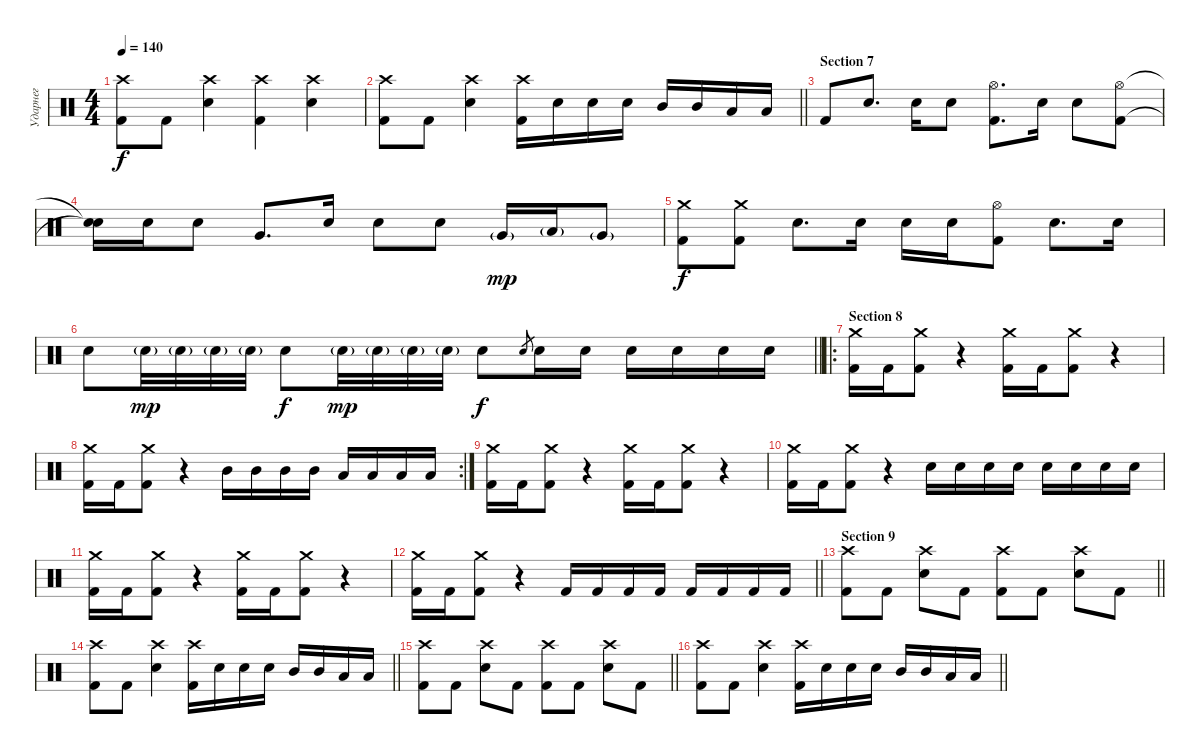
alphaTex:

\track ("Ударнег" "Ударнег") {instrument percussion}
\staff {score}
\articulation defaults
\ts (4 4)
\tempo 140
\clef neutral
\ks c
("Crash high (hit)" "Kick (hit) 2").8{dy f} "Kick (hit) 2".8 ("Crash high (hit)" "Snare (hit) 2").4 ("Crash high (hit)" "Kick (hit) 2").4 ("Crash high (hit)" "Snare (hit) 2").4 |
\barLineRight lightlight
("Crash high (hit)" "Kick (hit) 2").8 "Kick (hit) 2".8 ("Crash high (hit)" "Snare (hit) 2").4 ("Crash high (hit)" "Kick (hit) 2").16 "Snare (hit) 2".16 "Snare (hit) 2".16 "Snare (hit) 2".16 "Mid Tom (hit)".16 "Mid Tom (hit)".16 "Low Tom (hit)".16 "Low Tom (hit)".16 |
\section ("" "Section 7")
"Kick (hit) 2".8 "Snare (hit) 2".8{d} "Snare (hit) 2".16 "Snare (hit) 2".8 ("Hi-Hat (open)" "Kick (hit) 2").8{d} "Snare (hit) 2".16 "Snare (hit) 2".8 ("Hi-Hat (open)" "Kick (hit) 2").8 |
("Snare (hit)"{t} "Snare (hit)"{t}).16 "Snare (hit) 2".16 "Snare (hit) 2".8 "Very Low Tom (hit)".8{d} "Snare (hit) 2".16 "Snare (hit) 2".8 "Snare (hit) 2".8 "Very Low Tom (hit)"{g}.16{dy mp} "Low Tom (hit)"{g}.16 "Very Low Tom (hit)"{g}.8 |
("Crash medium (hit)" "Kick (hit) 2").8{dy f} ("Crash medium (hit)" "Kick (hit) 2").8 "Snare (hit) 2".8{d} "Snare (hit) 2".16 "Snare (hit) 2".16 "Snare (hit) 2".16 ("Hi-Hat (open)" "Kick (hit) 2").8 "Snare (hit) 2".8{d} "Snare (hit) 2".16 |
\barLineRight lightlight "Snare (hit) 2".8 "Snare (hit) 2"{g}.32{dy mp} "Snare (hit) 2"{g}.32 "Snare (hit) 2"{g}.32 "Snare (hit) 2"{g}.32 "Snare (hit) 2".8{dy f} "Snare (hit) 2"{g}.32{dy mp} "Snare (hit) 2"{g}.32 "Snare (hit) 2"{g}.32 "Snare (hit) 2"{g}.32 "Snare (hit) 2".8{dy f} "Snare (hit) 2".8{gr} "Snare (hit) 2".16 "Snare (hit) 2".16 "Snare (hit) 2".16 "Snare (hit) 2".16 "Snare (hit) 2".16 "Snare (hit) 2".16
|
\ro
\section ("" "Section 8")
("Crash medium (hit)" "Kick (hit) 2").16 "Kick (hit) 2".16 ("Crash medium (hit)" "Kick (hit) 2").8 r.4 ("Crash medium (hit)" "Kick (hit) 2").16 "Kick (hit) 2".16 ("Crash medium (hit)" "Kick (hit) 2").8 r.4 |
\rc 2
("Crash medium (hit)" "Kick (hit) 2").16 "Kick (hit) 2".16 ("Crash medium (hit)" "Kick (hit) 2").8 r.4 "Mid Tom (hit)".16 "Mid Tom (hit)".16 "Mid Tom (hit)".16 "Mid Tom (hit)".16 "Low Tom (hit)".16 "Low Tom (hit)".16 "Low Tom (hit)".16 "Low Tom (hit)".16 |
("Crash medium (hit)" "Kick (hit) 2").16 "Kick (hit) 2".16 ("Crash medium (hit)" "Kick (hit) 2").8 r.4 ("Crash medium (hit)" "Kick (hit) 2").16 "Kick (hit) 2".16 ("Crash medium (hit)" "Kick (hit) 2").8 r.4 |
("Crash medium (hit)" "Kick (hit) 2").16 "Kick (hit) 2".16 ("Crash medium (hit)" "Kick (hit) 2").8 r.4 "Snare (hit) 2".16 "Snare (hit) 2".16 "Snare (hit) 2".16 "Snare (hit) 2".16 "Snare (hit) 2".16 "Snare (hit) 2".16 "Snare (hit) 2".16 "Snare (hit) 2".16 |
("Crash medium (hit)" "Kick (hit) 2").16 "Kick (hit) 2".16 ("Crash medium (hit)" "Kick (hit) 2").8 r.4 ("Crash medium (hit)" "Kick (hit) 2").16 "Kick (hit) 2".16 ("Crash medium (hit)" "Kick (hit) 2").8 r.4 |
\barLineRight lightlight
("Crash medium (hit)" "Kick (hit) 2").16 "Kick (hit) 2".16 ("Crash medium (hit)" "Kick (hit) 2").8 r.4 "Kick (hit) 2".16 "Kick (hit) 2".16 "Kick (hit) 2".16 "Kick (hit) 2".16 "Kick (hit) 2".16 "Kick (hit) 2".16 "Kick (hit) 2".16 "Kick (hit) 2".16 |
\section ("" "Section 9")
\barLineRight lightlight
("Crash high (hit)" "Kick (hit) 2").8 "Kick (hit) 2".8 ("Crash high (hit)" "Snare (hit) 2").8 "Kick (hit) 2".8 ("Crash high (hit)" "Kick (hit) 2").8 "Kick (hit) 2".8 ("Crash high (hit)" "Snare (hit) 2").8 "Kick (hit) 2".8 |
\barLineRight lightlight
("Crash high (hit)" "Kick (hit) 2").8 "Kick (hit) 2".8 ("Crash high (hit)" "Snare (hit) 2").4 ("Crash high (hit)" "Kick (hit) 2").16 "Snare (hit) 2".16 "Snare (hit) 2".16 "Snare (hit) 2".16 "Mid Tom (hit)".16 "Mid Tom (hit)".16 "Low Tom (hit)".16 "Low Tom (hit)".16 |
\barLineRight lightlight
("Crash high (hit)" "Kick (hit) 2").8 "Kick (hit) 2".8 ("Crash high (hit)" "Snare (hit) 2").8 "Kick (hit) 2".8 ("Crash high (hit)" "Kick (hit) 2").8 "Kick (hit) 2".8 ("Crash high (hit)" "Snare (hit) 2").8 "Kick (hit) 2".8 |
\barLineRight lightlight
("Crash high (hit)" "Kick (hit) 2").8 "Kick (hit) 2".8 ("Crash high (hit)" "Snare (hit) 2").4 ("Crash high (hit)" "Kick (hit) 2").16 "Snare (hit) 2".16 "Snare (hit) 2".16 "Snare (hit) 2".16 "Mid Tom (hit)".16 "Mid Tom (hit)".16 "Low Tom (hit)".16 "Low Tom (hit)".16
